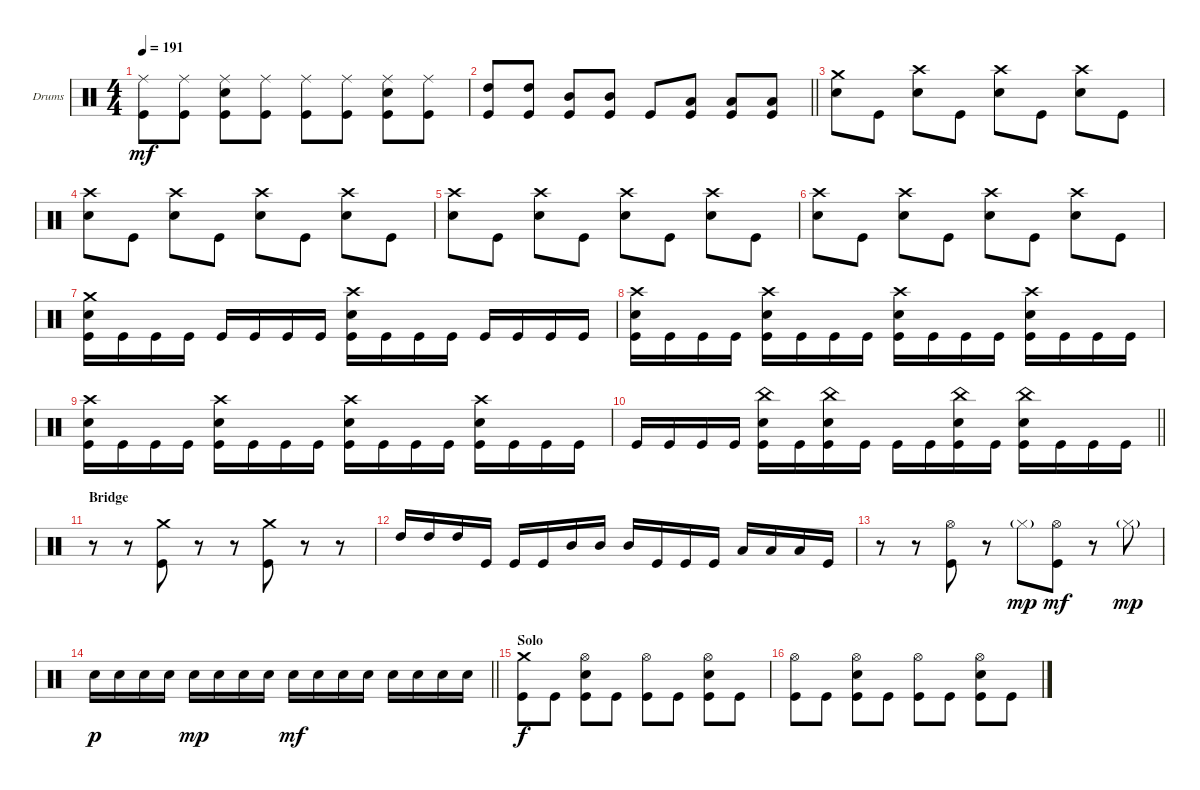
\bracketExtendMode groupsimilarinstruments
\firstSystemTrackNameOrientation horizontal
\otherSystemsTrackNameOrientation horizontal
\track ("Drumkit" "Drums") {instrument percussion}
\staff {score}
\articulation defaults
\ts (4 4)
\tempo 191
\clef neutral
\ks c
("Ride (middle)" "Kick (hit)").8{dy mf} ("Ride (middle)" "Kick (hit)").8 ("Ride (middle)" "Snare (hit) 2" "Kick (hit)").8 ("Ride (middle)" "Kick (hit)").8 ("Ride (middle)" "Kick (hit)").8 ("Ride (middle)" "Kick (hit)").8 ("Ride (middle)" "Snare (hit) 2" "Kick (hit)").8 ("Ride (middle)" "Kick (hit)").8 |
\barLineRight lightlight
("High Tom (hit)" "Kick (hit)").8 ("High Tom (hit)" "Kick (hit)").8 ("Mid Tom (hit)" "Kick (hit)").8 ("Mid Tom (hit)" "Kick (hit)").8 "Kick (hit)".8 ("Low Tom (hit)" "Kick (hit)").8 ("Low Tom (hit)" "Kick (hit)").8 ("Low Tom (hit)" "Kick (hit)").8 |
\section ("" "")
("Crash medium (hit)" "Snare (hit) 2").8 "Kick (hit)".8 ("Crash high (hit)" "Snare (hit) 2").8 "Kick (hit)".8 ("Crash high (hit)" "Snare (hit) 2").8 "Kick (hit)".8 ("Crash high (hit)" "Snare (hit) 2").8 "Kick (hit)".8 |
("Crash high (hit)" "Snare (hit) 2").8 "Kick (hit)".8 ("Crash high (hit)" "Snare (hit) 2").8 "Kick (hit)".8 ("Crash high (hit)" "Snare (hit) 2").8 "Kick (hit)".8 ("Crash high (hit)" "Snare (hit) 2").8 "Kick (hit)".8 |
("Crash high (hit)" "Snare (hit) 2").8 "Kick (hit)".8 ("Crash high (hit)" "Snare (hit) 2").8 "Kick (hit)".8 ("Crash high (hit)" "Snare (hit) 2").8 "Kick (hit)".8 ("Crash high (hit)" "Snare (hit) 2").8 "Kick (hit)".8 |
("Crash high (hit)" "Snare (hit) 2").8 "Kick (hit)".8 ("Crash high (hit)" "Snare (hit) 2").8 "Kick (hit)".8 ("Crash high (hit)" "Snare (hit) 2").8 "Kick (hit)".8 ("Crash high (hit)" "Snare (hit) 2").8 "Kick (hit)".8 |
("Crash medium (hit)" "Snare (hit) 2" "Kick (hit)").16 "Kick (hit)".16 "Kick (hit)".16 "Kick (hit)".16 "Kick (hit)".16 "Kick (hit)".16 "Kick (hit)".16 "Kick (hit)".16 ("Crash high (hit)" "Snare (hit) 2" "Kick (hit)").16 "Kick (hit)".16 "Kick (hit)".16 "Kick (hit)".16 "Kick (hit)".16 "Kick (hit)".16 "Kick (hit)".16 "Kick (hit)".16 |
("Crash high (hit)" "Snare (hit) 2" "Kick (hit)").16 "Kick (hit)".16 "Kick (hit)".16 "Kick (hit)".16 ("Crash high (hit)" "Snare (hit) 2" "Kick (hit)").16 "Kick (hit)".16 "Kick (hit)".16 "Kick (hit)".16 ("Crash high (hit)" "Snare (hit) 2" "Kick (hit)").16 "Kick (hit)".16 "Kick (hit)".16 "Kick (hit)".16 ("Crash high (hit)" "Snare (hit) 2" "Kick (hit)").16 "Kick (hit)".16 "Kick (hit)".16 "Kick (hit)".16 |
("Crash high (hit)" "Snare (hit) 2" "Kick (hit)").16 "Kick (hit)".16 "Kick (hit)".16 "Kick (hit)".16 ("Crash high (hit)" "Snare (hit) 2" "Kick (hit)").16 "Kick (hit)".16 "Kick (hit)".16 "Kick (hit)".16 ("Crash high (hit)" "Snare (hit) 2" "Kick (hit)").16 "Kick (hit)".16 "Kick (hit)".16 "Kick (hit)".16 ("Crash high (hit)" "Snare (hit) 2" "Kick (hit)").16 "Kick (hit)".16 "Kick (hit)".16 "Kick (hit)".16 |
\barLineRight lightlight "Kick (hit)".16 "Kick (hit)".16 "Kick (hit)".16 "Kick (hit)".16
("China (hit)" "Snare (hit) 2" "Kick (hit)").16 "Kick (hit)".16 ("China (hit)" "Snare (hit) 2" "Kick (hit)").16 "Kick (hit)".16 "Kick (hit)".16 "Kick (hit)".16 ("China (hit)" "Snare (hit) 2" "Kick (hit)").16 "Kick (hit)".16 ("China (hit)" "Snare (hit) 2" "Kick (hit)").16 "Kick (hit)".16 "Kick (hit)".16 "Kick (hit)".16 |
\section ("" "Bridge")
r.8 r.8 ("Crash medium (hit)" "Kick (hit)").8 r.8 r.8 ("Crash medium (hit)" "Kick (hit)").8 r.8 r.8 |
"High Tom (hit)".16 "High Tom (hit)".16 "High Tom (hit)".16 "Kick (hit)".16 "Kick (hit)".16 "Kick (hit)".16 "Mid Tom (hit)".16 "Mid Tom (hit)".16 "Mid Tom (hit)".16 "Kick (hit)".16 "Kick (hit)".16 "Kick (hit)".16 "Low Tom (hit)".16 "Low Tom (hit)".16 "Low Tom (hit)".16 "Kick (hit)".16 |
r.8 r.8 ("Hi-Hat (open)" "Kick (hit)").8 r.8 "Hi-Hat (closed)"{g}.8{dy mp} ("Hi-Hat (open)" "Kick (hit)").8{dy mf} r.8 "Hi-Hat (closed)"{g}.8{dy mp} |
\barLineRight lightlight "Snare (hit) 2".16{dy p} "Snare (hit) 2".16 "Snare (hit) 2".16 "Snare (hit) 2".16 "Snare (hit) 2".16{dy mp} "Snare (hit) 2".16 "Snare (hit) 2".16 "Snare (hit) 2".16 "Snare (hit) 2".16{dy mf} "Snare (hit) 2".16 "Snare (hit) 2".16 "Snare (hit) 2".16 "Snare (hit) 2".16 "Snare (hit) 2".16 "Snare (hit) 2".16 "Snare (hit) 2".16
|
\section ("" "Solo")
("Crash medium (hit)" "Kick (hit)").8{dy f} "Kick (hit)".8 ("Hi-Hat (open)" "Snare (hit) 2" "Kick (hit)").8 "Kick (hit)".8 ("Hi-Hat (open)" "Kick (hit)").8 "Kick (hit)".8 ("Hi-Hat (open)" "Snare (hit) 2" "Kick (hit)").8 "Kick (hit)".8 |
("Hi-Hat (open)" "Kick (hit)").8 "Kick (hit)".8 ("Hi-Hat (open)" "Snare (hit) 2" "Kick (hit)").8 "Kick (hit)".8 ("Hi-Hat (open)" "Kick (hit)").8 "Kick (hit)".8 ("Hi-Hat (open)" "Snare (hit) 2" "Kick (hit)").8 "Kick (hit)".8
